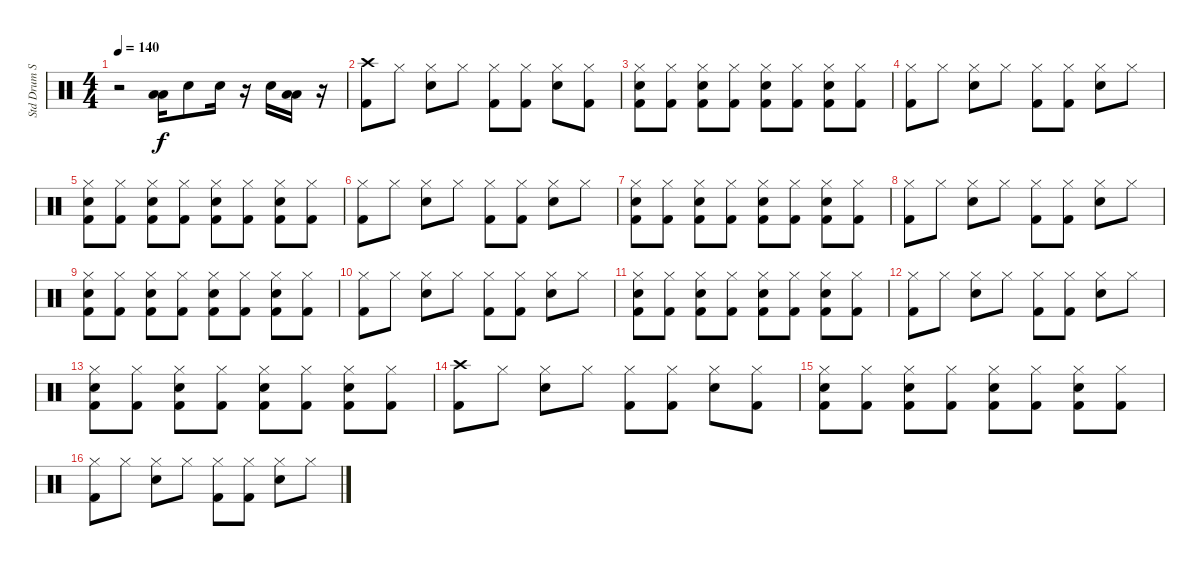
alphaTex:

\track ("Std Drum Set" "Std Drum S") {instrument percussion}
\staff {score}
\articulation defaults
\ts (4 4)
\tempo 140
\clef neutral
\ks c
r.2{dy f} ("Low Floor Tom (hit)" "Low Tom (hit)").16 "Snare (hit) 2".8 "Snare (hit) 2".16 r.16 "Snare (hit) 2".16 ("Low Floor Tom (hit)" "Low Tom (hit)").16 r.16 |
("Kick (hit) 2" "Crash high (hit)").8 "Hi-Hat (closed)".8 ("Snare (hit) 2" "Hi-Hat (closed)").8 "Hi-Hat (closed)".8 ("Kick (hit) 2" "Hi-Hat (closed)").8 ("Kick (hit) 2" "Hi-Hat (closed)").8 ("Hi-Hat (closed)" "Snare (hit) 2").8 ("Hi-Hat (closed)" "Kick (hit) 2").8 |
("Hi-Hat (closed)" "Snare (hit) 2" "Kick (hit) 2").8 ("Kick (hit) 2" "Hi-Hat (closed)").8 ("Kick (hit) 2" "Hi-Hat (closed)" "Snare (hit) 2").8 ("Kick (hit) 2" "Hi-Hat (closed)").8 ("Kick (hit) 2" "Hi-Hat (closed)" "Snare (hit) 2").8 ("Hi-Hat (closed)" "Kick (hit) 2").8 ("Hi-Hat (closed)" "Kick (hit) 2" "Snare (hit) 2").8 ("Hi-Hat (closed)" "Kick (hit) 2").8 |
("Kick (hit) 2" "Hi-Hat (closed)").8 "Hi-Hat (closed)".8 ("Hi-Hat (closed)" "Snare (hit) 2").8 "Hi-Hat (closed)".8 ("Kick (hit) 2" "Hi-Hat (closed)").8 ("Hi-Hat (closed)" "Kick (hit) 2").8 ("Hi-Hat (closed)" "Snare (hit) 2").8 "Hi-Hat (closed)".8 |
("Hi-Hat (closed)" "Kick (hit) 2" "Snare (hit) 2").8 ("Kick (hit) 2" "Hi-Hat (closed)").8 ("Kick (hit) 2" "Hi-Hat (closed)" "Snare (hit) 2").8 ("Kick (hit) 2" "Hi-Hat (closed)").8 ("Kick (hit) 2" "Hi-Hat (closed)" "Snare (hit) 2").8 ("Kick (hit) 2" "Hi-Hat (closed)").8 ("Hi-Hat (closed)" "Snare (hit) 2" "Kick (hit) 2").8 ("Hi-Hat (closed)" "Kick (hit) 2").8 |
("Kick (hit) 2" "Hi-Hat (closed)").8 "Hi-Hat (closed)".8 ("Snare (hit) 2" "Hi-Hat (closed)").8 "Hi-Hat (closed)".8 ("Hi-Hat (closed)" "Kick (hit) 2").8 ("Kick (hit) 2" "Hi-Hat (closed)").8 ("Hi-Hat (closed)" "Snare (hit) 2").8 "Hi-Hat (closed)".8 |
("Kick (hit) 2" "Hi-Hat (closed)" "Snare (hit) 2").8 ("Hi-Hat (closed)" "Kick (hit) 2").8 ("Kick (hit) 2" "Hi-Hat (closed)" "Snare (hit) 2").8 ("Hi-Hat (closed)" "Kick (hit) 2").8 ("Kick (hit) 2" "Hi-Hat (closed)" "Snare (hit) 2").8 ("Kick (hit) 2" "Hi-Hat (closed)").8 ("Snare (hit) 2" "Hi-Hat (closed)" "Kick (hit) 2").8 ("Hi-Hat (closed)" "Kick (hit) 2").8 |
("Hi-Hat (closed)" "Kick (hit) 2").8 "Hi-Hat (closed)".8 ("Hi-Hat (closed)" "Snare (hit) 2").8 "Hi-Hat (closed)".8 ("Kick (hit) 2" "Hi-Hat (closed)").8 ("Kick (hit) 2" "Hi-Hat (closed)").8 ("Hi-Hat (closed)" "Snare (hit) 2").8 "Hi-Hat (closed)".8 |
("Kick (hit) 2" "Hi-Hat (closed)" "Snare (hit) 2").8 ("Hi-Hat (closed)" "Kick (hit) 2").8 ("Kick (hit) 2" "Hi-Hat (closed)" "Snare (hit) 2").8 ("Hi-Hat (closed)" "Kick (hit) 2").8 ("Snare (hit) 2" "Kick (hit) 2" "Hi-Hat (closed)").8 ("Hi-Hat (closed)" "Kick (hit) 2").8 ("Kick (hit) 2" "Hi-Hat (closed)" "Snare (hit) 2").8 ("Hi-Hat (closed)" "Kick (hit) 2").8 |
("Hi-Hat (closed)" "Kick (hit) 2").8 "Hi-Hat (closed)".8 ("Hi-Hat (closed)" "Snare (hit) 2").8 "Hi-Hat (closed)".8 ("Hi-Hat (closed)" "Kick (hit) 2").8 ("Hi-Hat (closed)" "Kick (hit) 2").8 ("Snare (hit) 2" "Hi-Hat (closed)").8 "Hi-Hat (closed)".8 |
("Kick (hit) 2" "Hi-Hat (closed)" "Snare (hit) 2").8 ("Kick (hit) 2" "Hi-Hat (closed)").8 ("Hi-Hat (closed)" "Snare (hit) 2" "Kick (hit) 2").8 ("Kick (hit) 2" "Hi-Hat (closed)").8 ("Hi-Hat (closed)" "Kick (hit) 2" "Snare (hit) 2").8 ("Kick (hit) 2" "Hi-Hat (closed)").8 ("Snare (hit) 2" "Hi-Hat (closed)" "Kick (hit) 2").8 ("Kick (hit) 2" "Hi-Hat (closed)").8 |
("Hi-Hat (closed)" "Kick (hit) 2").8 "Hi-Hat (closed)".8 ("Snare (hit) 2" "Hi-Hat (closed)").8 "Hi-Hat (closed)".8 ("Hi-Hat (closed)" "Kick (hit) 2").8 ("Kick (hit) 2" "Hi-Hat (closed)").8 ("Snare (hit) 2" "Hi-Hat (closed)").8 "Hi-Hat (closed)".8 |
("Kick (hit) 2" "Hi-Hat (closed)" "Snare (hit) 2").8 ("Hi-Hat (closed)" "Kick (hit) 2").8 ("Hi-Hat (closed)" "Kick (hit) 2" "Snare (hit) 2").8 ("Kick (hit) 2" "Hi-Hat (closed)").8 ("Hi-Hat (closed)" "Snare (hit) 2" "Kick (hit) 2").8 ("Hi-Hat (closed)" "Kick (hit) 2").8 ("Hi-Hat (closed)" "Kick (hit) 2" "Snare (hit) 2").8 ("Hi-Hat (closed)" "Kick (hit) 2").8 |
("Crash high (hit)" "Kick (hit) 2").8 "Hi-Hat (closed)".8 ("Snare (hit) 2" "Hi-Hat (closed)").8 "Hi-Hat (closed)".8 ("Hi-Hat (closed)" "Kick (hit) 2").8 ("Hi-Hat (closed)" "Kick (hit) 2").8 ("Snare (hit) 2" "Hi-Hat (closed)").8 ("Hi-Hat (closed)" "Kick (hit) 2").8 |
("Kick (hit) 2" "Snare (hit) 2" "Hi-Hat (closed)").8 ("Hi-Hat (closed)" "Kick (hit) 2").8 ("Kick (hit) 2" "Snare (hit) 2" "Hi-Hat (closed)").8 ("Hi-Hat (closed)" "Kick (hit) 2").8 ("Snare (hit) 2" "Kick (hit) 2" "Hi-Hat (closed)").8 ("Kick (hit) 2" "Hi-Hat (closed)").8 ("Kick (hit) 2" "Snare (hit) 2" "Hi-Hat (closed)").8 ("Kick (hit) 2" "Hi-Hat (closed)").8 |
("Kick (hit) 2" "Hi-Hat (closed)").8 "Hi-Hat (closed)".8 ("Hi-Hat (closed)" "Snare (hit) 2").8 "Hi-Hat (closed)".8 ("Hi-Hat (closed)" "Kick (hit) 2").8 ("Hi-Hat (closed)" "Kick (hit) 2").8 ("Hi-Hat (closed)" "Snare (hit) 2").8 "Hi-Hat (closed)".8
